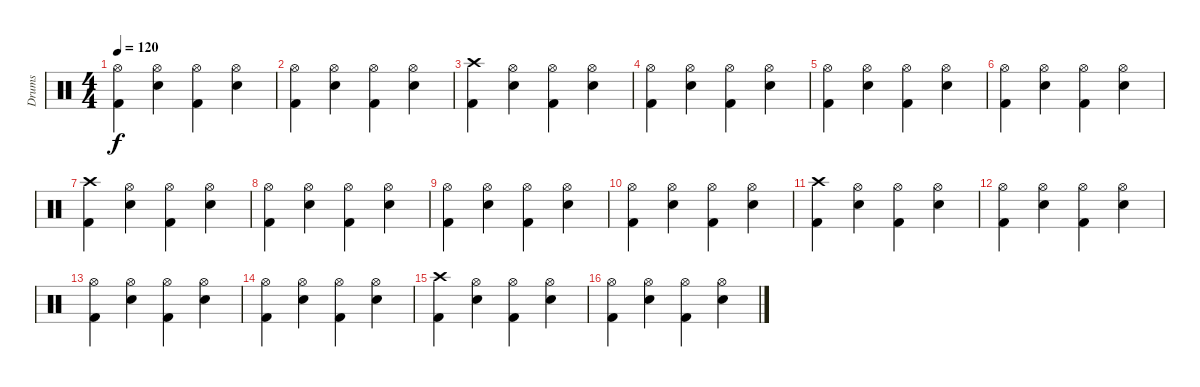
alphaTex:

\track ("Drums" "Drums") {instrument percussion}
\staff {score}
\articulation defaults
\ts (4 4)
\tempo 120
\clef neutral
\ks c
("Hi-Hat (open)" "Kick (hit) 2").4{dy f} ("Hi-Hat (open)" "Electric Snare (hit)").4 ("Hi-Hat (open)" "Kick (hit) 2").4 ("Hi-Hat (open)" "Electric Snare (hit)").4 |
("Hi-Hat (open)" "Kick (hit) 2").4 ("Hi-Hat (open)" "Electric Snare (hit)").4 ("Hi-Hat (open)" "Kick (hit) 2").4 ("Hi-Hat (open)" "Electric Snare (hit)").4 |
("Crash high (hit)" "Kick (hit) 2").4 ("Hi-Hat (open)" "Electric Snare (hit)").4 ("Hi-Hat (open)" "Kick (hit) 2").4 ("Hi-Hat (open)" "Electric Snare (hit)").4 |
("Hi-Hat (open)" "Kick (hit) 2").4 ("Hi-Hat (open)" "Electric Snare (hit)").4 ("Hi-Hat (open)" "Kick (hit) 2").4 ("Hi-Hat (open)" "Electric Snare (hit)").4 |
("Hi-Hat (open)" "Kick (hit) 2").4 ("Hi-Hat (open)" "Electric Snare (hit)").4 ("Hi-Hat (open)" "Kick (hit) 2").4 ("Hi-Hat (open)" "Electric Snare (hit)").4 |
("Hi-Hat (open)" "Kick (hit) 2").4 ("Hi-Hat (open)" "Electric Snare (hit)").4 ("Hi-Hat (open)" "Kick (hit) 2").4 ("Hi-Hat (open)" "Electric Snare (hit)").4 |
("Crash high (hit)" "Kick (hit) 2").4 ("Hi-Hat (open)" "Electric Snare (hit)").4 ("Hi-Hat (open)" "Kick (hit) 2").4 ("Hi-Hat (open)" "Electric Snare (hit)").4 |
("Hi-Hat (open)" "Kick (hit) 2").4 ("Hi-Hat (open)" "Electric Snare (hit)").4 ("Hi-Hat (open)" "Kick (hit) 2").4 ("Hi-Hat (open)" "Electric Snare (hit)").4 |
("Hi-Hat (open)" "Kick (hit) 2").4 ("Hi-Hat (open)" "Electric Snare (hit)").4 ("Hi-Hat (open)" "Kick (hit) 2").4 ("Hi-Hat (open)" "Electric Snare (hit)").4 |
("Hi-Hat (open)" "Kick (hit) 2").4 ("Hi-Hat (open)" "Electric Snare (hit)").4 ("Hi-Hat (open)" "Kick (hit) 2").4 ("Hi-Hat (open)" "Electric Snare (hit)").4 |
("Crash high (hit)" "Kick (hit) 2").4 ("Hi-Hat (open)" "Electric Snare (hit)").4 ("Hi-Hat (open)" "Kick (hit) 2").4 ("Hi-Hat (open)" "Electric Snare (hit)").4 |
("Hi-Hat (open)" "Kick (hit) 2").4 ("Hi-Hat (open)" "Electric Snare (hit)").4 ("Hi-Hat (open)" "Kick (hit) 2").4 ("Hi-Hat (open)" "Electric Snare (hit)").4 |
("Hi-Hat (open)" "Kick (hit) 2").4 ("Hi-Hat (open)" "Electric Snare (hit)").4 ("Hi-Hat (open)" "Kick (hit) 2").4 ("Hi-Hat (open)" "Electric Snare (hit)").4 |
("Hi-Hat (open)" "Kick (hit) 2").4 ("Hi-Hat (open)" "Electric Snare (hit)").4 ("Hi-Hat (open)" "Kick (hit) 2").4 ("Hi-Hat (open)" "Electric Snare (hit)").4 |
("Crash high (hit)" "Kick (hit) 2").4 ("Hi-Hat (open)" "Electric Snare (hit)").4 ("Hi-Hat (open)" "Kick (hit) 2").4 ("Hi-Hat (open)" "Electric Snare (hit)").4 |
("Hi-Hat (open)" "Kick (hit) 2").4 ("Hi-Hat (open)" "Electric Snare (hit)").4 ("Hi-Hat (open)" "Kick (hit) 2").4 ("Hi-Hat (open)" "Electric Snare (hit)").4
